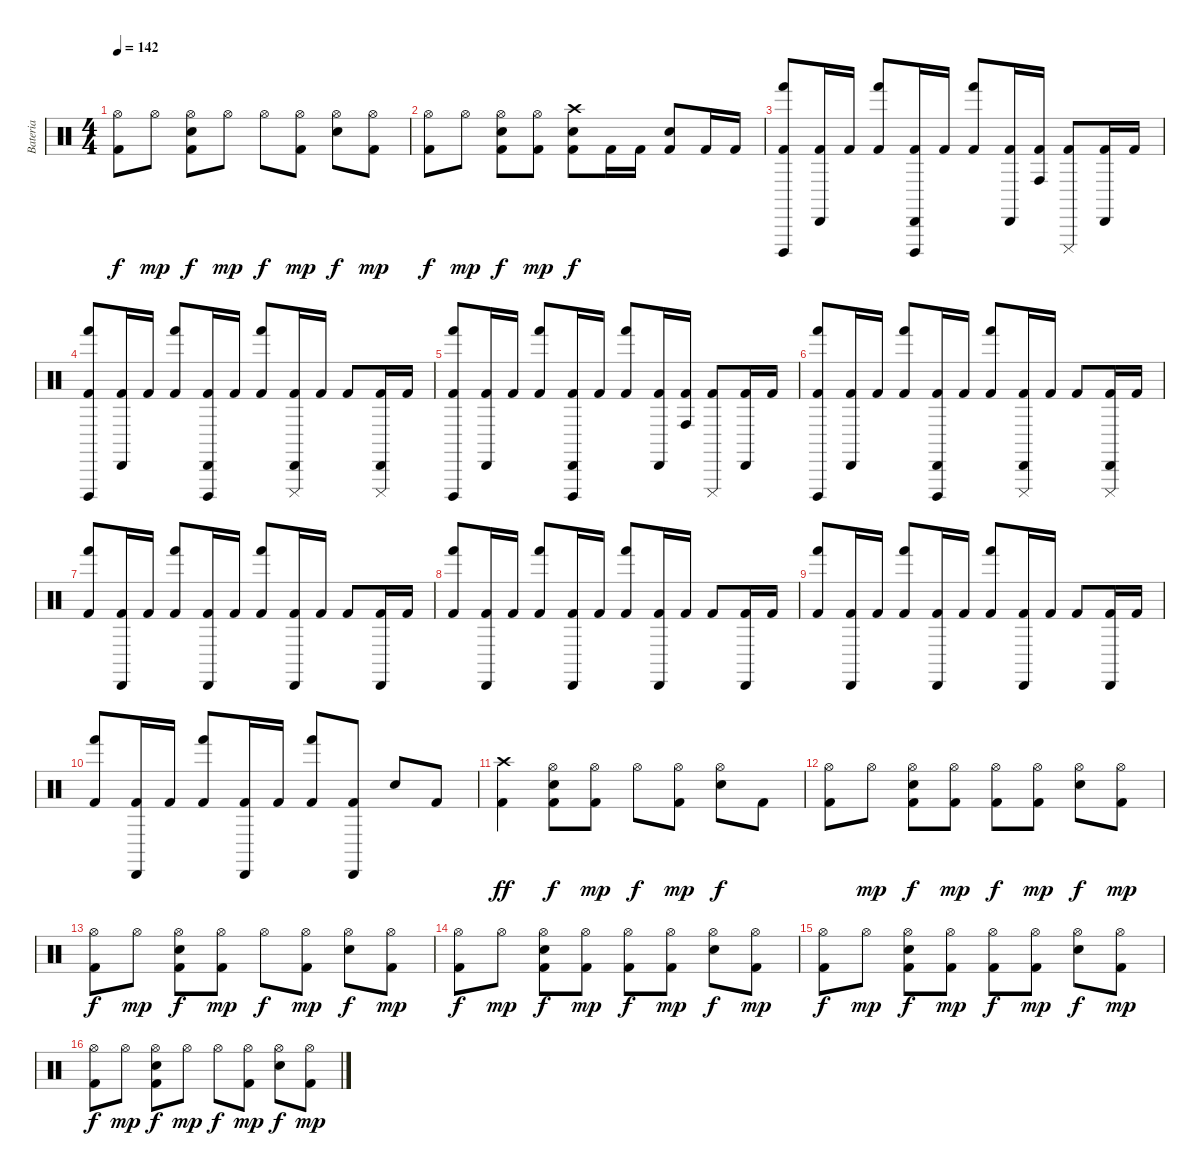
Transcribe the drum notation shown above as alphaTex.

\track ("Bateria" "Bateria") {instrument percussion}
\staff {score}
\articulation defaults
\ts (4 4)
\tempo 142
\clef neutral
\ks c
("Kick (hit) 2" "Hi-Hat (open)").8{dy f} "Hi-Hat (open)".8{dy mp} ("Electric Snare (hit)" "Kick (hit) 2" "Hi-Hat (open)").8{dy f} "Hi-Hat (open)".8{dy mp} "Hi-Hat (open)".8{dy f} ("Kick (hit) 2" "Hi-Hat (open)").8{dy mp} ("Electric Snare (hit)" "Hi-Hat (open)").8{dy f} ("Kick (hit) 2" "Hi-Hat (open)").8{dy mp} |
("Kick (hit) 2" "Hi-Hat (open)").8{dy f} "Hi-Hat (open)".8{dy mp} ("Electric Snare (hit)" "Kick (hit) 2" "Hi-Hat (open)").8{dy f} ("Kick (hit) 2" "Hi-Hat (open)").8{dy mp} ("Electric Snare (hit)" "Kick (hit) 2" "Crash high (hit)").8{dy f} "Kick (hit) 2".16 "Kick (hit) 2".16 ("Electric Snare (hit)" "Kick (hit) 2").8 "Kick (hit) 2".16 "Kick (hit) 2".16 |
("Kick (hit) 2" "Cuica (open)" "Hand (hit)").8 ("Kick (hit) 2" "Cabasa (hit)").16 "Kick (hit) 2".16 ("Kick (hit) 2" "Hand (hit)").8 ("Kick (hit) 2" "Cuica (open)" "Cabasa (hit)").16 "Kick (hit) 2".16 ("Kick (hit) 2" "Hand (hit)").8 ("Kick (hit) 2" "Cabasa (hit)").16 ("Kick (hit) 2" "Conga high (hit)").16 ("Kick (hit) 2" "Cuica (mute)").8 ("Kick (hit) 2" "Cabasa (hit)").16 "Kick (hit) 2".16 |
("Kick (hit) 2" "Cuica (open)" "Hand (hit)").8 ("Kick (hit) 2" "Cabasa (hit)").16 "Kick (hit) 2".16 ("Kick (hit) 2" "Hand (hit)").8 ("Kick (hit) 2" "Cuica (open)" "Cabasa (hit)").16 "Kick (hit) 2".16 ("Kick (hit) 2" "Hand (hit)").8 ("Kick (hit) 2" "Cuica (mute)" "Cabasa (hit)").16 "Kick (hit) 2".16 "Kick (hit) 2".8 ("Kick (hit) 2" "Cuica (mute)" "Cabasa (hit)").16 "Kick (hit) 2".16 |
("Kick (hit) 2" "Cuica (open)" "Hand (hit)").8 ("Kick (hit) 2" "Cabasa (hit)").16 "Kick (hit) 2".16 ("Kick (hit) 2" "Hand (hit)").8 ("Kick (hit) 2" "Cuica (open)" "Cabasa (hit)").16 "Kick (hit) 2".16 ("Kick (hit) 2" "Hand (hit)").8 ("Kick (hit) 2" "Cabasa (hit)").16 ("Kick (hit) 2" "Conga high (hit)").16 ("Kick (hit) 2" "Cuica (mute)").8 ("Kick (hit) 2" "Cabasa (hit)").16 "Kick (hit) 2".16 |
("Kick (hit) 2" "Cuica (open)" "Hand (hit)").8 ("Kick (hit) 2" "Cabasa (hit)").16 "Kick (hit) 2".16 ("Kick (hit) 2" "Hand (hit)").8 ("Kick (hit) 2" "Cuica (open)" "Cabasa (hit)").16 "Kick (hit) 2".16 ("Kick (hit) 2" "Hand (hit)").8 ("Kick (hit) 2" "Cuica (mute)" "Cabasa (hit)").16 "Kick (hit) 2".16 "Kick (hit) 2".8 ("Kick (hit) 2" "Cuica (mute)" "Cabasa (hit)").16 "Kick (hit) 2".16 |
("Kick (hit) 2" "Hand (hit)").8 ("Kick (hit) 2" "Cabasa (hit)").16 "Kick (hit) 2".16 ("Kick (hit) 2" "Hand (hit)").8 ("Kick (hit) 2" "Cabasa (hit)").16 "Kick (hit) 2".16 ("Kick (hit) 2" "Hand (hit)").8 ("Kick (hit) 2" "Cabasa (hit)").16 "Kick (hit) 2".16 "Kick (hit) 2".8 ("Kick (hit) 2" "Cabasa (hit)").16 "Kick (hit) 2".16 |
("Kick (hit) 2" "Hand (hit)").8 ("Kick (hit) 2" "Cabasa (hit)").16 "Kick (hit) 2".16 ("Kick (hit) 2" "Hand (hit)").8 ("Kick (hit) 2" "Cabasa (hit)").16 "Kick (hit) 2".16 ("Kick (hit) 2" "Hand (hit)").8 ("Kick (hit) 2" "Cabasa (hit)").16 "Kick (hit) 2".16 "Kick (hit) 2".8 ("Kick (hit) 2" "Cabasa (hit)").16 "Kick (hit) 2".16 |
("Kick (hit) 2" "Hand (hit)").8 ("Kick (hit) 2" "Cabasa (hit)").16 "Kick (hit) 2".16 ("Kick (hit) 2" "Hand (hit)").8 ("Kick (hit) 2" "Cabasa (hit)").16 "Kick (hit) 2".16 ("Kick (hit) 2" "Hand (hit)").8 ("Kick (hit) 2" "Cabasa (hit)").16 "Kick (hit) 2".16 "Kick (hit) 2".8 ("Kick (hit) 2" "Cabasa (hit)").16 "Kick (hit) 2".16 |
("Kick (hit) 2" "Hand (hit)").8 ("Kick (hit) 2" "Cabasa (hit)").16 "Kick (hit) 2".16 ("Kick (hit) 2" "Hand (hit)").8 ("Kick (hit) 2" "Cabasa (hit)").16 "Kick (hit) 2".16 ("Kick (hit) 2" "Hand (hit)").8 ("Kick (hit) 2" "Cabasa (hit)").8 "Electric Snare (hit)".8 "Kick (hit) 2".8 |
("Crash high (hit)" "Kick (hit) 2").4{dy ff} ("Electric Snare (hit)" "Kick (hit) 2" "Hi-Hat (open)").8{dy f} ("Kick (hit) 2" "Hi-Hat (open)").8{dy mp} "Hi-Hat (open)".8{dy f} ("Kick (hit) 2" "Hi-Hat (open)").8{dy mp} ("Electric Snare (hit)" "Hi-Hat (open)").8{dy f} "Kick (hit) 2".8 |
("Kick (hit) 2" "Hi-Hat (open)").8 "Hi-Hat (open)".8{dy mp} ("Electric Snare (hit)" "Kick (hit) 2" "Hi-Hat (open)").8{dy f} ("Kick (hit) 2" "Hi-Hat (open)").8{dy mp} ("Kick (hit) 2"{x} "Hi-Hat (open)").8{dy f} ("Kick (hit) 2" "Hi-Hat (open)").8{dy mp} ("Electric Snare (hit)" "Hi-Hat (open)").8{dy f} ("Kick (hit) 2" "Hi-Hat (open)").8{dy mp} |
("Kick (hit) 2" "Hi-Hat (open)").8{dy f} "Hi-Hat (open)".8{dy mp} ("Electric Snare (hit)" "Kick (hit) 2" "Hi-Hat (open)").8{dy f} ("Kick (hit) 2" "Hi-Hat (open)").8{dy mp} "Hi-Hat (open)".8{dy f} ("Kick (hit) 2" "Hi-Hat (open)").8{dy mp} ("Electric Snare (hit)" "Hi-Hat (open)").8{dy f} ("Kick (hit) 2" "Hi-Hat (open)").8{dy mp} |
("Kick (hit) 2" "Hi-Hat (open)").8{dy f} "Hi-Hat (open)".8{dy mp} ("Electric Snare (hit)" "Kick (hit) 2" "Hi-Hat (open)").8{dy f} ("Kick (hit) 2" "Hi-Hat (open)").8{dy mp} ("Kick (hit) 2"{x} "Hi-Hat (open)").8{dy f} ("Kick (hit) 2" "Hi-Hat (open)").8{dy mp} ("Electric Snare (hit)" "Hi-Hat (open)").8{dy f} ("Kick (hit) 2" "Hi-Hat (open)").8{dy mp} |
("Kick (hit) 2" "Hi-Hat (open)").8{dy f} "Hi-Hat (open)".8{dy mp} ("Electric Snare (hit)" "Kick (hit) 2" "Hi-Hat (open)").8{dy f} ("Kick (hit) 2" "Hi-Hat (open)").8{dy mp} ("Kick (hit) 2"{x} "Hi-Hat (open)").8{dy f} ("Kick (hit) 2" "Hi-Hat (open)").8{dy mp} ("Electric Snare (hit)" "Hi-Hat (open)").8{dy f} ("Kick (hit) 2" "Hi-Hat (open)").8{dy mp} |
("Kick (hit) 2" "Hi-Hat (open)").8{dy f} "Hi-Hat (open)".8{dy mp} ("Electric Snare (hit)" "Kick (hit) 2" "Hi-Hat (open)").8{dy f} "Hi-Hat (open)".8{dy mp} "Hi-Hat (open)".8{dy f} ("Kick (hit) 2" "Hi-Hat (open)").8{dy mp} ("Electric Snare (hit)" "Hi-Hat (open)").8{dy f} ("Kick (hit) 2" "Hi-Hat (open)").8{dy mp}
